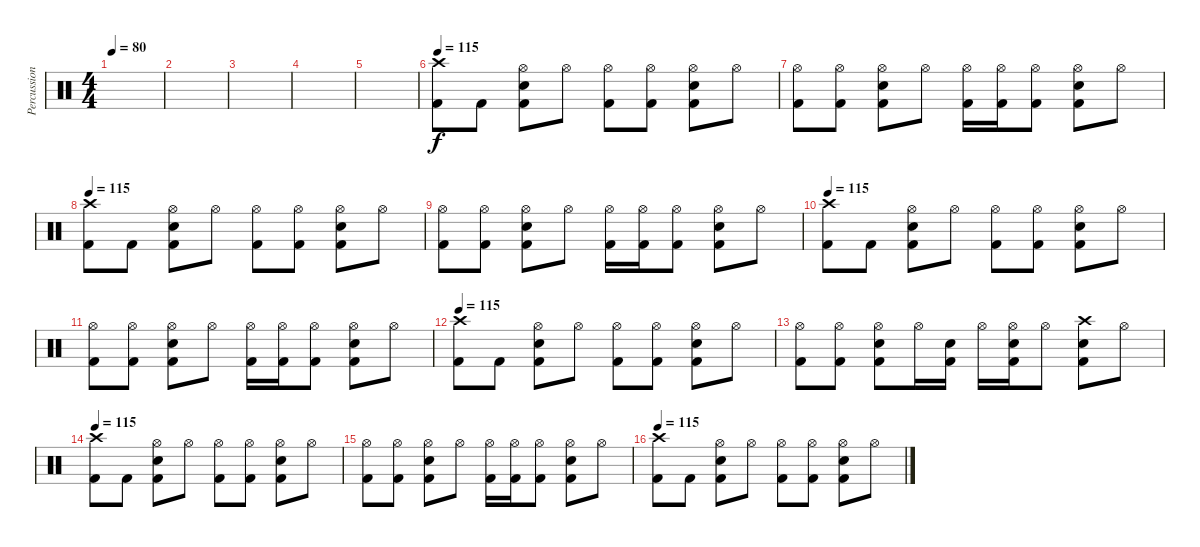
\track ("Percussion" "Percussion") {instrument percussion}
\staff {score}
\articulation defaults
\ts (4 4)
\tempo 80
\clef neutral
\ks c
|
|
|
|
|
\tempo 115
("Crash high (hit)" "Kick (hit) 2").8 "Kick (hit) 2".8 ("Hi-Hat (open)" "Kick (hit) 2" "Snare (hit) 2").8 "Hi-Hat (open)".8 ("Hi-Hat (open)" "Kick (hit) 2").8 ("Hi-Hat (open)" "Kick (hit) 2").8 ("Hi-Hat (open)" "Kick (hit) 2" "Snare (hit) 2").8 "Hi-Hat (open)".8 |
("Hi-Hat (open)" "Kick (hit) 2").8 ("Hi-Hat (open)" "Kick (hit) 2").8 ("Hi-Hat (open)" "Kick (hit) 2" "Snare (hit) 2").8 "Hi-Hat (open)".8 ("Hi-Hat (open)" "Kick (hit) 2").16 ("Hi-Hat (open)" "Kick (hit) 2").16 ("Hi-Hat (open)" "Kick (hit) 2").8 ("Hi-Hat (open)" "Kick (hit) 2" "Snare (hit) 2").8 "Hi-Hat (open)".8 |
\tempo 115
("Crash high (hit)" "Kick (hit) 2").8 "Kick (hit) 2".8 ("Hi-Hat (open)" "Kick (hit) 2" "Snare (hit) 2").8 "Hi-Hat (open)".8 ("Hi-Hat (open)" "Kick (hit) 2").8 ("Hi-Hat (open)" "Kick (hit) 2").8 ("Hi-Hat (open)" "Kick (hit) 2" "Snare (hit) 2").8 "Hi-Hat (open)".8 |
("Hi-Hat (open)" "Kick (hit) 2").8 ("Hi-Hat (open)" "Kick (hit) 2").8 ("Hi-Hat (open)" "Kick (hit) 2" "Snare (hit) 2").8 "Hi-Hat (open)".8 ("Hi-Hat (open)" "Kick (hit) 2").16 ("Hi-Hat (open)" "Kick (hit) 2").16 ("Hi-Hat (open)" "Kick (hit) 2").8 ("Hi-Hat (open)" "Kick (hit) 2" "Snare (hit) 2").8 "Hi-Hat (open)".8 |
\tempo 115
("Crash high (hit)" "Kick (hit) 2").8 "Kick (hit) 2".8 ("Hi-Hat (open)" "Kick (hit) 2" "Snare (hit) 2").8 "Hi-Hat (open)".8 ("Hi-Hat (open)" "Kick (hit) 2").8 ("Hi-Hat (open)" "Kick (hit) 2").8 ("Hi-Hat (open)" "Kick (hit) 2" "Snare (hit) 2").8 "Hi-Hat (open)".8 |
("Hi-Hat (open)" "Kick (hit) 2").8 ("Hi-Hat (open)" "Kick (hit) 2").8 ("Hi-Hat (open)" "Kick (hit) 2" "Snare (hit) 2").8 "Hi-Hat (open)".8 ("Hi-Hat (open)" "Kick (hit) 2").16 ("Hi-Hat (open)" "Kick (hit) 2").16 ("Hi-Hat (open)" "Kick (hit) 2").8 ("Hi-Hat (open)" "Kick (hit) 2" "Snare (hit) 2").8 "Hi-Hat (open)".8 |
\tempo 115
("Crash high (hit)" "Kick (hit) 2").8 "Kick (hit) 2".8 ("Hi-Hat (open)" "Kick (hit) 2" "Snare (hit) 2").8 "Hi-Hat (open)".8 ("Hi-Hat (open)" "Kick (hit) 2").8 ("Hi-Hat (open)" "Kick (hit) 2").8 ("Hi-Hat (open)" "Kick (hit) 2" "Snare (hit) 2").8 "Hi-Hat (open)".8 |
("Hi-Hat (open)" "Kick (hit) 2").8 ("Hi-Hat (open)" "Kick (hit) 2").8 ("Hi-Hat (open)" "Kick (hit) 2" "Snare (hit) 2").8 "Hi-Hat (open)".16 ("Kick (hit) 2" "Snare (hit) 2").16 "Hi-Hat (open)".16 ("Hi-Hat (open)" "Kick (hit) 2" "Snare (hit) 2").16 "Hi-Hat (open)".8 ("Crash high (hit)" "Kick (hit) 2" "Snare (hit) 2").8 "Hi-Hat (open)".8 |
\tempo 115
("Crash high (hit)" "Kick (hit) 2").8 "Kick (hit) 2".8 ("Hi-Hat (open)" "Kick (hit) 2" "Snare (hit) 2").8 "Hi-Hat (open)".8 ("Hi-Hat (open)" "Kick (hit) 2").8 ("Hi-Hat (open)" "Kick (hit) 2").8 ("Hi-Hat (open)" "Kick (hit) 2" "Snare (hit) 2").8 "Hi-Hat (open)".8 |
("Hi-Hat (open)" "Kick (hit) 2").8 ("Hi-Hat (open)" "Kick (hit) 2").8 ("Hi-Hat (open)" "Kick (hit) 2" "Snare (hit) 2").8 "Hi-Hat (open)".8 ("Hi-Hat (open)" "Kick (hit) 2").16 ("Hi-Hat (open)" "Kick (hit) 2").16 ("Hi-Hat (open)" "Kick (hit) 2").8 ("Hi-Hat (open)" "Kick (hit) 2" "Snare (hit) 2").8 "Hi-Hat (open)".8 |
\tempo 115
("Crash high (hit)" "Kick (hit) 2").8 "Kick (hit) 2".8 ("Hi-Hat (open)" "Kick (hit) 2" "Snare (hit) 2").8 "Hi-Hat (open)".8 ("Hi-Hat (open)" "Kick (hit) 2").8 ("Hi-Hat (open)" "Kick (hit) 2").8 ("Hi-Hat (open)" "Kick (hit) 2" "Snare (hit) 2").8 "Hi-Hat (open)".8
